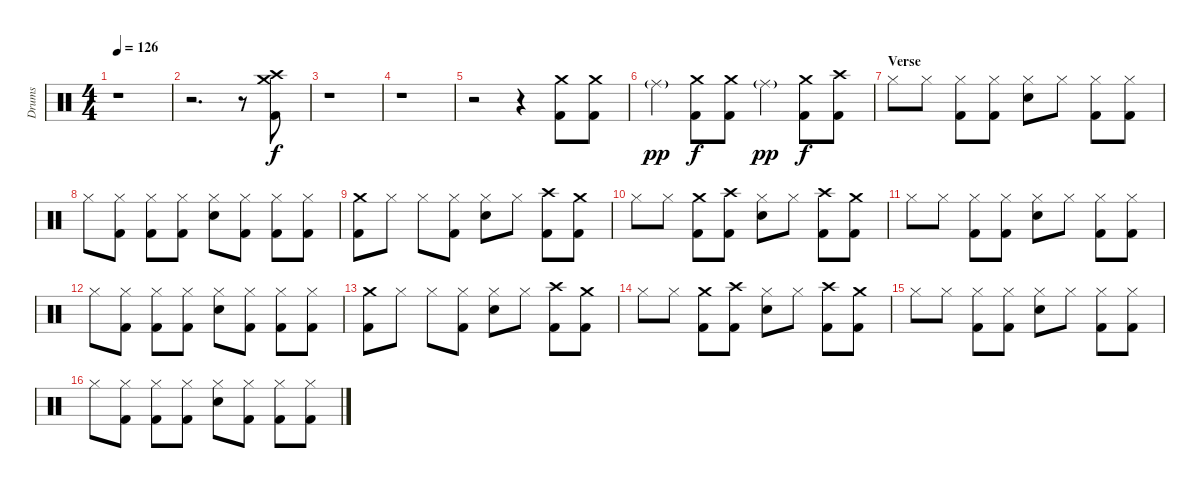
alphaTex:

\bracketExtendMode groupsimilarinstruments
\track ("Drumkit" "Drums") {solo instrument percussion}
\staff {score}
\articulation defaults
\ts (4 4)
\tempo 126
\clef neutral
\ks c
r.1{dy pp} |
r.2{d} r.8 ("Crash medium (hit)" "Crash high (hit)" "Kick (hit) 2").8{dy f} |
r.1 |
r.1 |
r.2 r.4 ("Crash medium (hit)" "Kick (hit) 2").8 ("Crash medium (hit)" "Kick (hit) 2").8 |
"Ride (middle)"{g}.4{dy pp} ("Crash medium (hit)" "Kick (hit) 2").8{dy f} ("Crash medium (hit)" "Kick (hit) 2").8 "Ride (middle)"{g}.4{dy pp} ("Crash medium (hit)" "Kick (hit) 2").8{dy f} ("Crash high (hit)" "Kick (hit) 2").8 |
\section ("" "Verse")
"Hi-Hat (closed)".8 "Hi-Hat (closed)".8 ("Hi-Hat (closed)" "Kick (hit) 2").8 ("Hi-Hat (closed)" "Kick (hit) 2").8 ("Hi-Hat (closed)" "Snare (hit) 2").8 "Hi-Hat (closed)".8 ("Hi-Hat (closed)" "Kick (hit) 2").8 ("Hi-Hat (closed)" "Kick (hit) 2").8 |
"Hi-Hat (closed)".8 ("Hi-Hat (closed)" "Kick (hit) 2").8 ("Hi-Hat (closed)" "Kick (hit) 2").8 ("Hi-Hat (closed)" "Kick (hit) 2").8 ("Hi-Hat (closed)" "Snare (hit) 2").8 ("Hi-Hat (closed)" "Kick (hit) 2").8 ("Hi-Hat (closed)" "Kick (hit) 2").8 ("Hi-Hat (closed)" "Kick (hit) 2").8 |
("Crash medium (hit)" "Kick (hit) 2").8 "Hi-Hat (closed)".8 "Hi-Hat (closed)".8 ("Hi-Hat (closed)" "Kick (hit) 2").8 ("Hi-Hat (closed)" "Snare (hit) 2").8 "Hi-Hat (closed)".8 ("Crash high (hit)" "Kick (hit) 2").8 ("Crash medium (hit)" "Kick (hit) 2").8 |
"Hi-Hat (closed)".8 "Hi-Hat (closed)".8 ("Crash medium (hit)" "Kick (hit) 2").8 ("Crash high (hit)" "Kick (hit) 2").8 ("Hi-Hat (closed)" "Snare (hit) 2").8 "Hi-Hat (closed)".8 ("Crash high (hit)" "Kick (hit) 2").8 ("Crash medium (hit)" "Kick (hit) 2").8 |
"Hi-Hat (closed)".8 "Hi-Hat (closed)".8 ("Hi-Hat (closed)" "Kick (hit) 2").8 ("Hi-Hat (closed)" "Kick (hit) 2").8 ("Hi-Hat (closed)" "Snare (hit) 2").8 "Hi-Hat (closed)".8 ("Hi-Hat (closed)" "Kick (hit) 2").8 ("Hi-Hat (closed)" "Kick (hit) 2").8 |
"Hi-Hat (closed)".8 ("Hi-Hat (closed)" "Kick (hit) 2").8 ("Hi-Hat (closed)" "Kick (hit) 2").8 ("Hi-Hat (closed)" "Kick (hit) 2").8 ("Hi-Hat (closed)" "Snare (hit) 2").8 ("Hi-Hat (closed)" "Kick (hit) 2").8 ("Hi-Hat (closed)" "Kick (hit) 2").8 ("Hi-Hat (closed)" "Kick (hit) 2").8 |
("Crash medium (hit)" "Kick (hit) 2").8 "Hi-Hat (closed)".8 "Hi-Hat (closed)".8 ("Hi-Hat (closed)" "Kick (hit) 2").8 ("Hi-Hat (closed)" "Snare (hit) 2").8 "Hi-Hat (closed)".8 ("Crash high (hit)" "Kick (hit) 2").8 ("Crash medium (hit)" "Kick (hit) 2").8 |
"Hi-Hat (closed)".8 "Hi-Hat (closed)".8 ("Crash medium (hit)" "Kick (hit) 2").8 ("Crash high (hit)" "Kick (hit) 2").8 ("Hi-Hat (closed)" "Snare (hit) 2").8 "Hi-Hat (closed)".8 ("Crash high (hit)" "Kick (hit) 2").8 ("Crash medium (hit)" "Kick (hit) 2").8 |
"Hi-Hat (closed)".8 "Hi-Hat (closed)".8 ("Hi-Hat (closed)" "Kick (hit) 2").8 ("Hi-Hat (closed)" "Kick (hit) 2").8 ("Hi-Hat (closed)" "Snare (hit) 2").8 "Hi-Hat (closed)".8 ("Hi-Hat (closed)" "Kick (hit) 2").8 ("Hi-Hat (closed)" "Kick (hit) 2").8 |
"Hi-Hat (closed)".8 ("Hi-Hat (closed)" "Kick (hit) 2").8 ("Hi-Hat (closed)" "Kick (hit) 2").8 ("Hi-Hat (closed)" "Kick (hit) 2").8 ("Hi-Hat (closed)" "Snare (hit) 2").8 ("Hi-Hat (closed)" "Kick (hit) 2").8 ("Hi-Hat (closed)" "Kick (hit) 2").8 ("Hi-Hat (closed)" "Kick (hit) 2").8
